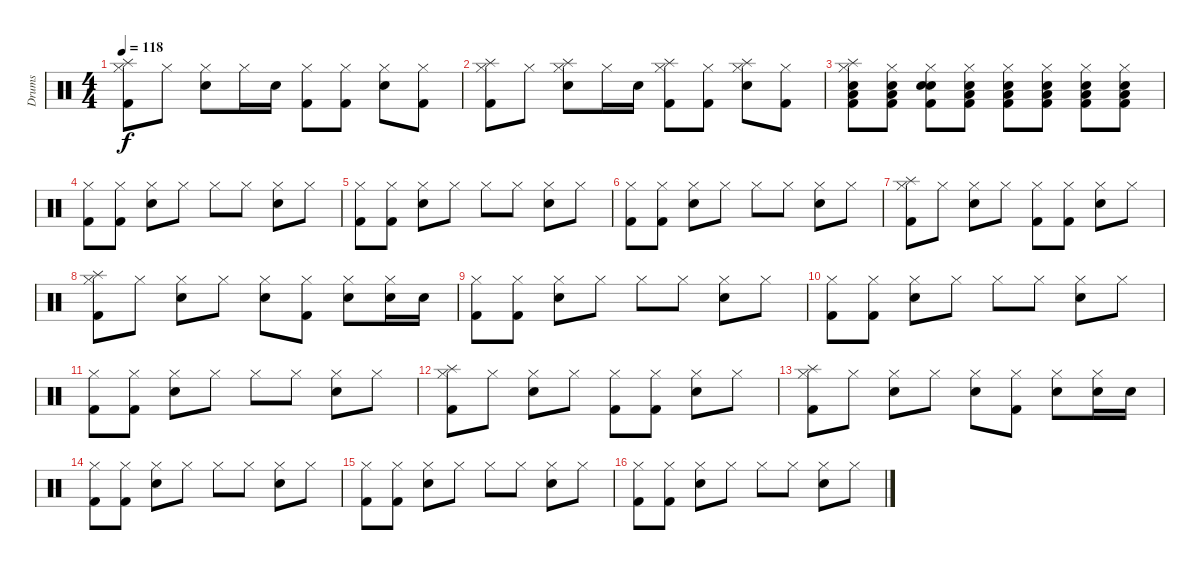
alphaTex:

\track ("Drums" "Drums") {instrument percussion}
\staff {score}
\articulation defaults
\ts (4 4)
\tempo 118
\clef neutral
\ks c
("Splash (hit)" "Hi-Hat (closed)" "Kick (hit) 2").8{dy f} "Hi-Hat (closed)".8 ("Hi-Hat (closed)" "Snare (hit) 2").8 "Hi-Hat (closed)".16 "Snare (hit) 2".16 ("Hi-Hat (closed)" "Kick (hit) 2").8 ("Hi-Hat (closed)" "Kick (hit) 2").8 ("Hi-Hat (closed)" "Snare (hit) 2").8 ("Hi-Hat (closed)" "Kick (hit) 2").8 |
("Splash (hit)" "Hi-Hat (closed)" "Kick (hit) 2").8 "Hi-Hat (closed)".8 ("Splash (hit)" "Hi-Hat (closed)" "Snare (hit) 2").8 "Hi-Hat (closed)".16 "Snare (hit) 2".16 ("Splash (hit)" "Hi-Hat (closed)" "Kick (hit) 2").8 ("Hi-Hat (closed)" "Kick (hit) 2").8 ("Splash (hit)" "Hi-Hat (closed)" "Snare (hit) 2").8 ("Hi-Hat (closed)" "Kick (hit) 2").8 |
("Snare (hit) 2" "Splash (hit)" "Hi-Hat (closed)" "Low Floor Tom (hit)" "Kick (hit) 2").8 ("Snare (hit) 2" "Hi-Hat (closed)" "Low Floor Tom (hit)" "Kick (hit) 2").8 ("Snare (hit) 2" "Hi-Hat (closed)" "Snare (hit)" "Kick (hit) 2").8 ("Snare (hit) 2" "Hi-Hat (closed)" "Low Floor Tom (hit)" "Kick (hit) 2").8 ("Snare (hit) 2" "Hi-Hat (closed)" "Low Floor Tom (hit)" "Kick (hit) 2").8 ("Snare (hit) 2" "Hi-Hat (closed)" "Low Floor Tom (hit)" "Kick (hit) 2").8 ("Snare (hit) 2" "Hi-Hat (closed)" "Low Floor Tom (hit)" "Kick (hit) 2").8 ("Snare (hit) 2" "Hi-Hat (closed)" "Low Floor Tom (hit)" "Kick (hit) 2").8 |
("Hi-Hat (closed)" "Kick (hit) 2").8 ("Hi-Hat (closed)" "Kick (hit) 2").8 ("Hi-Hat (closed)" "Snare (hit) 2").8 "Hi-Hat (closed)".8 "Hi-Hat (closed)".8 "Hi-Hat (closed)".8 ("Hi-Hat (closed)" "Snare (hit) 2").8 "Hi-Hat (closed)".8 |
("Hi-Hat (closed)" "Kick (hit) 2").8 ("Hi-Hat (closed)" "Kick (hit) 2").8 ("Hi-Hat (closed)" "Snare (hit) 2").8 "Hi-Hat (closed)".8 "Hi-Hat (closed)".8 "Hi-Hat (closed)".8 ("Hi-Hat (closed)" "Snare (hit) 2").8 "Hi-Hat (closed)".8 |
("Hi-Hat (closed)" "Kick (hit) 2").8 ("Hi-Hat (closed)" "Kick (hit) 2").8 ("Hi-Hat (closed)" "Snare (hit) 2").8 "Hi-Hat (closed)".8 "Hi-Hat (closed)".8 "Hi-Hat (closed)".8 ("Hi-Hat (closed)" "Snare (hit) 2").8 "Hi-Hat (closed)".8 |
("Splash (hit)" "Hi-Hat (closed)" "Kick (hit) 2").8 "Hi-Hat (closed)".8 ("Hi-Hat (closed)" "Snare (hit) 2").8 "Hi-Hat (closed)".8 ("Hi-Hat (closed)" "Kick (hit) 2").8 ("Hi-Hat (closed)" "Kick (hit) 2").8 ("Hi-Hat (closed)" "Snare (hit) 2").8 "Hi-Hat (closed)".8 |
("Splash (hit)" "Hi-Hat (closed)" "Kick (hit) 2").8 "Hi-Hat (closed)".8 ("Hi-Hat (closed)" "Snare (hit) 2").8 "Hi-Hat (closed)".8 ("Hi-Hat (closed)" "Snare (hit) 2").8 ("Hi-Hat (closed)" "Kick (hit) 2").8 ("Hi-Hat (closed)" "Snare (hit) 2").8 ("Hi-Hat (closed)" "Snare (hit) 2").16 "Snare (hit) 2".16 |
("Hi-Hat (closed)" "Kick (hit) 2").8 ("Hi-Hat (closed)" "Kick (hit) 2").8 ("Hi-Hat (closed)" "Snare (hit) 2").8 "Hi-Hat (closed)".8 "Hi-Hat (closed)".8 "Hi-Hat (closed)".8 ("Hi-Hat (closed)" "Snare (hit) 2").8 "Hi-Hat (closed)".8 |
("Hi-Hat (closed)" "Kick (hit) 2").8 ("Hi-Hat (closed)" "Kick (hit) 2").8 ("Hi-Hat (closed)" "Snare (hit) 2").8 "Hi-Hat (closed)".8 "Hi-Hat (closed)".8 "Hi-Hat (closed)".8 ("Hi-Hat (closed)" "Snare (hit) 2").8 "Hi-Hat (closed)".8 |
("Hi-Hat (closed)" "Kick (hit) 2").8 ("Hi-Hat (closed)" "Kick (hit) 2").8 ("Hi-Hat (closed)" "Snare (hit) 2").8 "Hi-Hat (closed)".8 "Hi-Hat (closed)".8 "Hi-Hat (closed)".8 ("Hi-Hat (closed)" "Snare (hit) 2").8 "Hi-Hat (closed)".8 |
("Splash (hit)" "Hi-Hat (closed)" "Kick (hit) 2").8 "Hi-Hat (closed)".8 ("Hi-Hat (closed)" "Snare (hit) 2").8 "Hi-Hat (closed)".8 ("Hi-Hat (closed)" "Kick (hit) 2").8 ("Hi-Hat (closed)" "Kick (hit) 2").8 ("Hi-Hat (closed)" "Snare (hit) 2").8 "Hi-Hat (closed)".8 |
("Splash (hit)" "Hi-Hat (closed)" "Kick (hit) 2").8 "Hi-Hat (closed)".8 ("Hi-Hat (closed)" "Snare (hit) 2").8 "Hi-Hat (closed)".8 ("Hi-Hat (closed)" "Snare (hit) 2").8 ("Hi-Hat (closed)" "Kick (hit) 2").8 ("Hi-Hat (closed)" "Snare (hit) 2").8 ("Hi-Hat (closed)" "Snare (hit) 2").16 "Snare (hit) 2".16 |
("Hi-Hat (closed)" "Kick (hit) 2").8 ("Hi-Hat (closed)" "Kick (hit) 2").8 ("Hi-Hat (closed)" "Snare (hit) 2").8 "Hi-Hat (closed)".8 "Hi-Hat (closed)".8 "Hi-Hat (closed)".8 ("Hi-Hat (closed)" "Snare (hit) 2").8 "Hi-Hat (closed)".8 |
("Hi-Hat (closed)" "Kick (hit) 2").8 ("Hi-Hat (closed)" "Kick (hit) 2").8 ("Hi-Hat (closed)" "Snare (hit) 2").8 "Hi-Hat (closed)".8 "Hi-Hat (closed)".8 "Hi-Hat (closed)".8 ("Hi-Hat (closed)" "Snare (hit) 2").8 "Hi-Hat (closed)".8 |
("Hi-Hat (closed)" "Kick (hit) 2").8 ("Hi-Hat (closed)" "Kick (hit) 2").8 ("Hi-Hat (closed)" "Snare (hit) 2").8 "Hi-Hat (closed)".8 "Hi-Hat (closed)".8 "Hi-Hat (closed)".8 ("Hi-Hat (closed)" "Snare (hit) 2").8 "Hi-Hat (closed)".8
